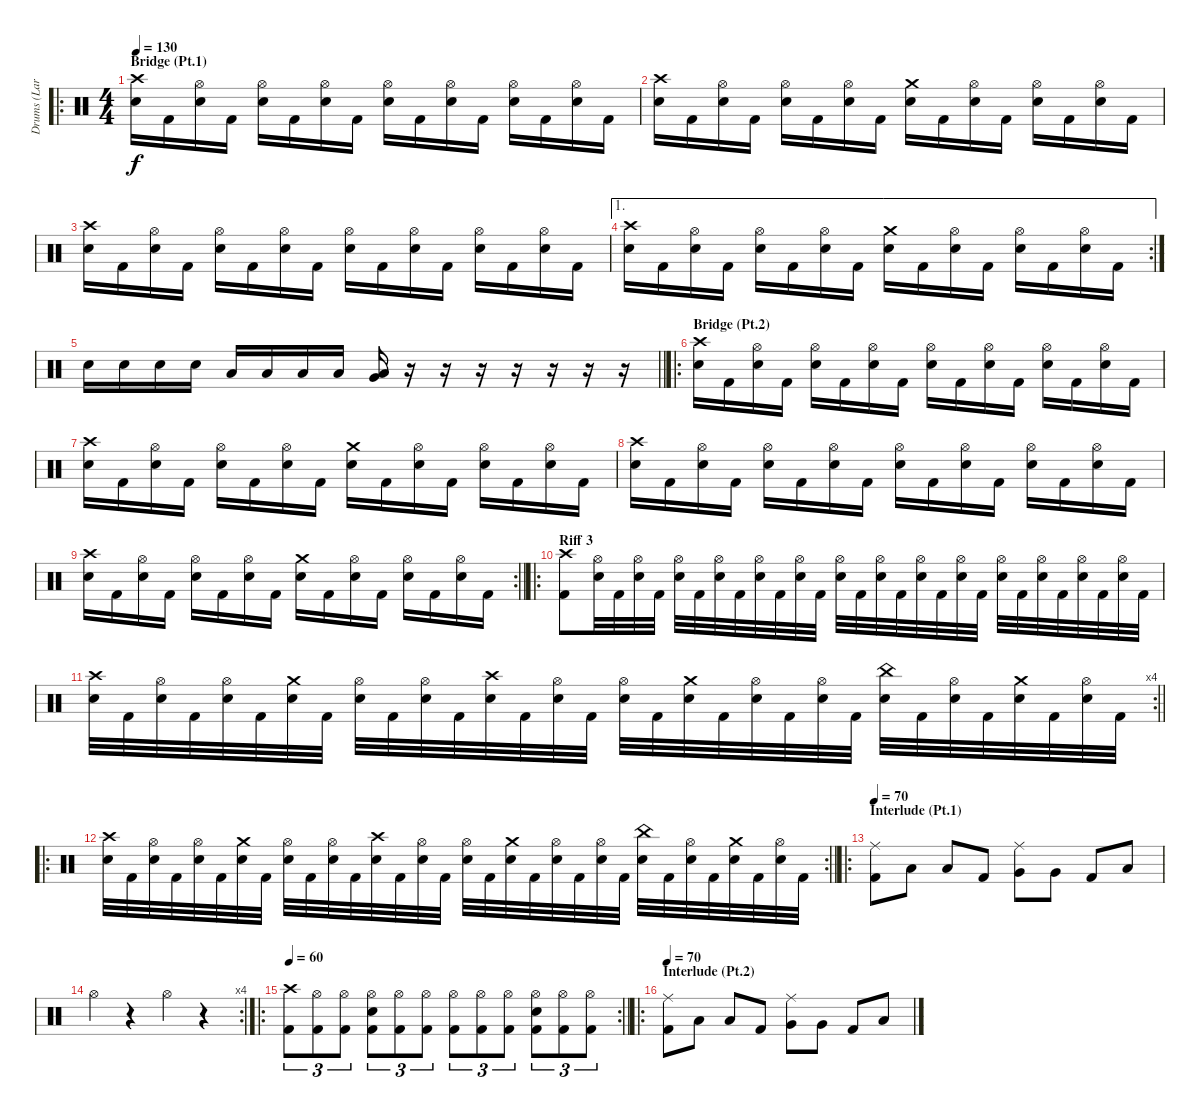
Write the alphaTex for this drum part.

\track ("Drums (Lars)" "Drums (Lar") {instrument percussion}
\staff {score}
\articulation defaults
\ro
\ts (4 4)
\section ("" "Bridge (Pt.1)")
\tempo 130
\clef neutral
\ks c
("Snare (hit) 2" "Crash high (hit)").16{dy f} "Kick (hit) 2".16 ("Snare (hit) 2" "Hi-Hat (open)").16 "Kick (hit) 2".16 ("Snare (hit) 2" "Hi-Hat (open)").16 "Kick (hit) 2".16 ("Snare (hit) 2" "Hi-Hat (open)").16 "Kick (hit) 2".16 ("Snare (hit) 2" "Hi-Hat (open)").16 "Kick (hit) 2".16 ("Snare (hit) 2" "Hi-Hat (open)").16 "Kick (hit) 2".16 ("Snare (hit) 2" "Hi-Hat (open)").16 "Kick (hit) 2".16 ("Snare (hit) 2" "Hi-Hat (open)").16 "Kick (hit) 2".16 |
("Snare (hit) 2" "Crash high (hit)").16 "Kick (hit) 2".16 ("Snare (hit) 2" "Hi-Hat (open)").16 "Kick (hit) 2".16 ("Snare (hit) 2" "Hi-Hat (open)").16 "Kick (hit) 2".16 ("Snare (hit) 2" "Hi-Hat (open)").16 "Kick (hit) 2".16 ("Snare (hit) 2" "Crash medium (hit)").16 "Kick (hit) 2".16 ("Snare (hit) 2" "Hi-Hat (open)").16 "Kick (hit) 2".16 ("Snare (hit) 2" "Hi-Hat (open)").16 "Kick (hit) 2".16 ("Snare (hit) 2" "Hi-Hat (open)").16 "Kick (hit) 2".16 |
("Snare (hit) 2" "Crash high (hit)").16 "Kick (hit) 2".16 ("Snare (hit) 2" "Hi-Hat (open)").16 "Kick (hit) 2".16 ("Snare (hit) 2" "Hi-Hat (open)").16 "Kick (hit) 2".16 ("Snare (hit) 2" "Hi-Hat (open)").16 "Kick (hit) 2".16 ("Snare (hit) 2" "Hi-Hat (open)").16 "Kick (hit) 2".16 ("Snare (hit) 2" "Hi-Hat (open)").16 "Kick (hit) 2".16 ("Snare (hit) 2" "Hi-Hat (open)").16 "Kick (hit) 2".16 ("Snare (hit) 2" "Hi-Hat (open)").16 "Kick (hit) 2".16 |
\ae 1
\rc 2
("Snare (hit) 2" "Crash high (hit)").16 "Kick (hit) 2".16 ("Snare (hit) 2" "Hi-Hat (open)").16 "Kick (hit) 2".16 ("Snare (hit) 2" "Hi-Hat (open)").16 "Kick (hit) 2".16 ("Snare (hit) 2" "Hi-Hat (open)").16 "Kick (hit) 2".16 ("Snare (hit) 2" "Crash medium (hit)").16 "Kick (hit) 2".16 ("Snare (hit) 2" "Hi-Hat (open)").16 "Kick (hit) 2".16 ("Snare (hit) 2" "Hi-Hat (open)").16 "Kick (hit) 2".16 ("Snare (hit) 2" "Hi-Hat (open)").16 "Kick (hit) 2".16 |
\barLineRight lightlight "Snare (hit) 2".16 "Snare (hit) 2".16 "Snare (hit) 2".16 "Snare (hit) 2".16 "Low Tom (hit)".16 "Low Tom (hit)".16 "Low Tom (hit)".16 "Low Tom (hit)".16
("Low Floor Tom (hit)" "Very Low Tom (hit)").16 r.16 r.16 r.16 r.16 r.16 r.16 r.16 |
\ro
\section ("" "Bridge (Pt.2)")
("Snare (hit) 2" "Crash high (hit)").16 "Kick (hit) 2".16 ("Snare (hit) 2" "Hi-Hat (open)").16 "Kick (hit) 2".16 ("Snare (hit) 2" "Hi-Hat (open)").16 "Kick (hit) 2".16 ("Snare (hit) 2" "Hi-Hat (open)").16 "Kick (hit) 2".16 ("Snare (hit) 2" "Hi-Hat (open)").16 "Kick (hit) 2".16 ("Snare (hit) 2" "Hi-Hat (open)").16 "Kick (hit) 2".16 ("Snare (hit) 2" "Hi-Hat (open)").16 "Kick (hit) 2".16 ("Snare (hit) 2" "Hi-Hat (open)").16 "Kick (hit) 2".16 |
("Snare (hit) 2" "Crash high (hit)").16 "Kick (hit) 2".16 ("Snare (hit) 2" "Hi-Hat (open)").16 "Kick (hit) 2".16 ("Snare (hit) 2" "Hi-Hat (open)").16 "Kick (hit) 2".16 ("Snare (hit) 2" "Hi-Hat (open)").16 "Kick (hit) 2".16 ("Snare (hit) 2" "Crash medium (hit)").16 "Kick (hit) 2".16 ("Snare (hit) 2" "Hi-Hat (open)").16 "Kick (hit) 2".16 ("Snare (hit) 2" "Hi-Hat (open)").16 "Kick (hit) 2".16 ("Snare (hit) 2" "Hi-Hat (open)").16 "Kick (hit) 2".16 |
("Snare (hit) 2" "Crash high (hit)").16 "Kick (hit) 2".16 ("Snare (hit) 2" "Hi-Hat (open)").16 "Kick (hit) 2".16 ("Snare (hit) 2" "Hi-Hat (open)").16 "Kick (hit) 2".16 ("Snare (hit) 2" "Hi-Hat (open)").16 "Kick (hit) 2".16 ("Snare (hit) 2" "Hi-Hat (open)").16 "Kick (hit) 2".16 ("Snare (hit) 2" "Hi-Hat (open)").16 "Kick (hit) 2".16 ("Snare (hit) 2" "Hi-Hat (open)").16 "Kick (hit) 2".16 ("Snare (hit) 2" "Hi-Hat (open)").16 "Kick (hit) 2".16 |
\rc 2
\barLineRight lightlight
("Snare (hit) 2" "Crash high (hit)").16 "Kick (hit) 2".16 ("Snare (hit) 2" "Hi-Hat (open)").16 "Kick (hit) 2".16 ("Snare (hit) 2" "Hi-Hat (open)").16 "Kick (hit) 2".16 ("Snare (hit) 2" "Hi-Hat (open)").16 "Kick (hit) 2".16 ("Snare (hit) 2" "Crash medium (hit)").16 "Kick (hit) 2".16 ("Snare (hit) 2" "Hi-Hat (open)").16 "Kick (hit) 2".16 ("Snare (hit) 2" "Hi-Hat (open)").16 "Kick (hit) 2".16 ("Snare (hit) 2" "Hi-Hat (open)").16 "Kick (hit) 2".16 |
\ro
\section ("" "Riff 3")
("Crash high (hit)" "Kick (hit) 2").8 ("Hi-Hat (open)" "Snare (hit) 2").32 "Kick (hit) 2".32 ("Hi-Hat (open)" "Snare (hit) 2").32 "Kick (hit) 2".32 ("Hi-Hat (open)" "Snare (hit) 2").32 "Kick (hit) 2".32 ("Hi-Hat (open)" "Snare (hit) 2").32 "Kick (hit) 2".32 ("Hi-Hat (open)" "Snare (hit) 2").32 "Kick (hit) 2".32 ("Hi-Hat (open)" "Snare (hit) 2").32 "Kick (hit) 2".32 ("Hi-Hat (open)" "Snare (hit) 2").32 "Kick (hit) 2".32 ("Hi-Hat (open)" "Snare (hit) 2").32 "Kick (hit) 2".32 ("Hi-Hat (open)" "Snare (hit) 2").32 "Kick (hit) 2".32 ("Hi-Hat (open)" "Snare (hit) 2").32 "Kick (hit) 2".32 ("Hi-Hat (open)" "Snare (hit) 2").32 "Kick (hit) 2".32 ("Hi-Hat (open)" "Snare (hit) 2").32 "Kick (hit) 2".32 ("Hi-Hat (open)" "Snare (hit) 2").32 "Kick (hit) 2".32 ("Hi-Hat (open)" "Snare (hit) 2").32 "Kick (hit) 2".32 |
\rc 4
\barLineRight lightlight
("Crash high (hit)" "Snare (hit) 2").32 "Kick (hit) 2".32 ("Hi-Hat (open)" "Snare (hit) 2").32 "Kick (hit) 2".32 ("Hi-Hat (open)" "Snare (hit) 2").32 "Kick (hit) 2".32 ("Crash medium (hit)" "Snare (hit) 2").32 "Kick (hit) 2".32 ("Hi-Hat (open)" "Snare (hit) 2").32 "Kick (hit) 2".32 ("Hi-Hat (open)" "Snare (hit) 2").32 "Kick (hit) 2".32 ("Crash high (hit)" "Snare (hit) 2").32 "Kick (hit) 2".32 ("Hi-Hat (open)" "Snare (hit) 2").32 "Kick (hit) 2".32 ("Hi-Hat (open)" "Snare (hit) 2").32 "Kick (hit) 2".32 ("Crash medium (hit)" "Snare (hit) 2").32 "Kick (hit) 2".32 ("Hi-Hat (open)" "Snare (hit) 2").32 "Kick (hit) 2".32 ("Hi-Hat (open)" "Snare (hit) 2").32 "Kick (hit) 2".32 ("China (hit)" "Snare (hit) 2").32 "Kick (hit) 2".32 ("Hi-Hat (open)" "Snare (hit) 2").32 "Kick (hit) 2".32 ("Crash medium (hit)" "Snare (hit) 2").32 "Kick (hit) 2".32 ("Hi-Hat (open)" "Snare (hit) 2").32 "Kick (hit) 2".32 |
\ro
\rc 2
\section ("" "")
\barLineRight lightlight
("Crash high (hit)" "Snare (hit) 2").32 "Kick (hit) 2".32 ("Hi-Hat (open)" "Snare (hit) 2").32 "Kick (hit) 2".32 ("Hi-Hat (open)" "Snare (hit) 2").32 "Kick (hit) 2".32 ("Crash medium (hit)" "Snare (hit) 2").32 "Kick (hit) 2".32 ("Hi-Hat (open)" "Snare (hit) 2").32 "Kick (hit) 2".32 ("Hi-Hat (open)" "Snare (hit) 2").32 "Kick (hit) 2".32 ("Crash high (hit)" "Snare (hit) 2").32 "Kick (hit) 2".32 ("Hi-Hat (open)" "Snare (hit) 2").32 "Kick (hit) 2".32 ("Hi-Hat (open)" "Snare (hit) 2").32 "Kick (hit) 2".32 ("Crash medium (hit)" "Snare (hit) 2").32 "Kick (hit) 2".32 ("Hi-Hat (open)" "Snare (hit) 2").32 "Kick (hit) 2".32 ("Hi-Hat (open)" "Snare (hit) 2").32 "Kick (hit) 2".32 ("China (hit)" "Snare (hit) 2").32 "Kick (hit) 2".32 ("Hi-Hat (open)" "Snare (hit) 2").32 "Kick (hit) 2".32 ("Crash medium (hit)" "Snare (hit) 2").32 "Kick (hit) 2".32 ("Hi-Hat (open)" "Snare (hit) 2").32 "Kick (hit) 2".32 |
\ro
\section ("" "Interlude (Pt.1)")
\tempo 70
("Ride (middle)" "Kick (hit) 2").8 "Low Tom (hit)".8 "Low Tom (hit)".8 "Kick (hit) 2".8 ("Ride (middle)" "Very Low Tom (hit)").8 "Very Low Tom (hit)".8 "Kick (hit) 2".8 "Low Floor Tom (hit)".8 |
\rc 4 "Hi-Hat (open)".4
r.4 "Hi-Hat (open)".4 r.4 |
\ro
\rc 2
\tempo 60
\barLineRight lightlight
("Crash high (hit)" "Kick (hit) 2").8{tu (3 2)} ("Hi-Hat (open)" "Kick (hit) 2").8{tu (3 2)} ("Hi-Hat (open)" "Kick (hit) 2").8{tu (3 2)} ("Hi-Hat (open)" "Snare (hit) 2" "Kick (hit) 2").8{tu (3 2)} ("Hi-Hat (open)" "Kick (hit) 2").8{tu (3 2)} ("Hi-Hat (open)" "Kick (hit) 2").8{tu (3 2)} ("Hi-Hat (open)" "Kick (hit) 2").8{tu (3 2)} ("Hi-Hat (open)" "Kick (hit) 2").8{tu (3 2)} ("Hi-Hat (open)" "Kick (hit) 2").8{tu (3 2)} ("Hi-Hat (open)" "Snare (hit) 2" "Kick (hit) 2").8{tu (3 2)} ("Hi-Hat (open)" "Kick (hit) 2").8{tu (3 2)} ("Hi-Hat (open)" "Kick (hit) 2").8{tu (3 2)} |
\ro
\section ("" "Interlude (Pt.2)")
\tempo 70
("Ride (middle)" "Kick (hit) 2").8 "Low Tom (hit)".8 "Low Tom (hit)".8 "Kick (hit) 2".8 ("Ride (middle)" "Very Low Tom (hit)").8 "Very Low Tom (hit)".8 "Kick (hit) 2".8 "Low Floor Tom (hit)".8
